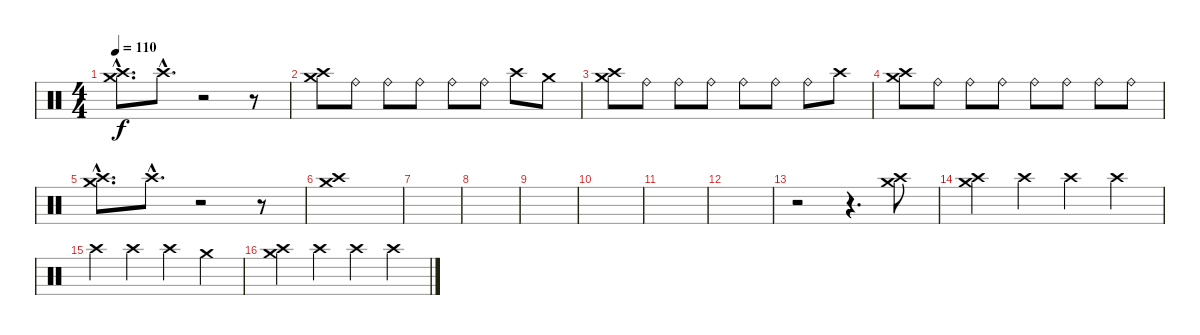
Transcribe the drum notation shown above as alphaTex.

\track "" {instrument percussion}
\staff {score}
\articulation defaults
\ts (4 4)
\tempo 110
\clef neutral
\ks c
("Crash medium (hit)"{hac} "Crash high (hit)"{hac}).8{d dy f} "Crash high (hit)"{hac}.8{d} r.2 r.8 |
("Crash medium (hit)" "Crash high (hit)").8 "Ride (bell)".8 "Ride (bell)".8 "Ride (bell)".8 "Ride (bell)".8 "Ride (bell)".8 "Crash high (hit)".8 "Crash medium (hit)".8 |
("Crash medium (hit)" "Crash high (hit)").8 "Ride (bell)".8 "Ride (bell)".8 "Ride (bell)".8 "Ride (bell)".8 "Ride (bell)".8 "Ride (bell)".8 "Crash high (hit)".8 |
("Crash medium (hit)" "Crash high (hit)").8 "Ride (bell)".8 "Ride (bell)".8 "Ride (bell)".8 "Ride (bell)".8 "Ride (bell)".8 "Ride (bell)".8 "Ride (bell)".8 |
("Crash medium (hit)"{hac} "Crash high (hit)"{hac}).8{d} "Crash high (hit)"{hac}.8{d} r.2 r.8 |
("Crash medium (hit)" "Crash high (hit)").1 |
|
|
|
|
|
|
r.2 r.4{d} ("Crash medium (hit)" "Crash high (hit)").8 |
("Crash high (hit)" "Crash medium (hit)").4 "Crash high (hit)".4 "Crash high (hit)".4 "Crash high (hit)".4 |
"Crash high (hit)".4 "Crash high (hit)".4 "Crash high (hit)".4 "Crash medium (hit)".4 |
("Crash high (hit)" "Crash medium (hit)").4 "Crash high (hit)".4 "Crash high (hit)".4 "Crash high (hit)".4
